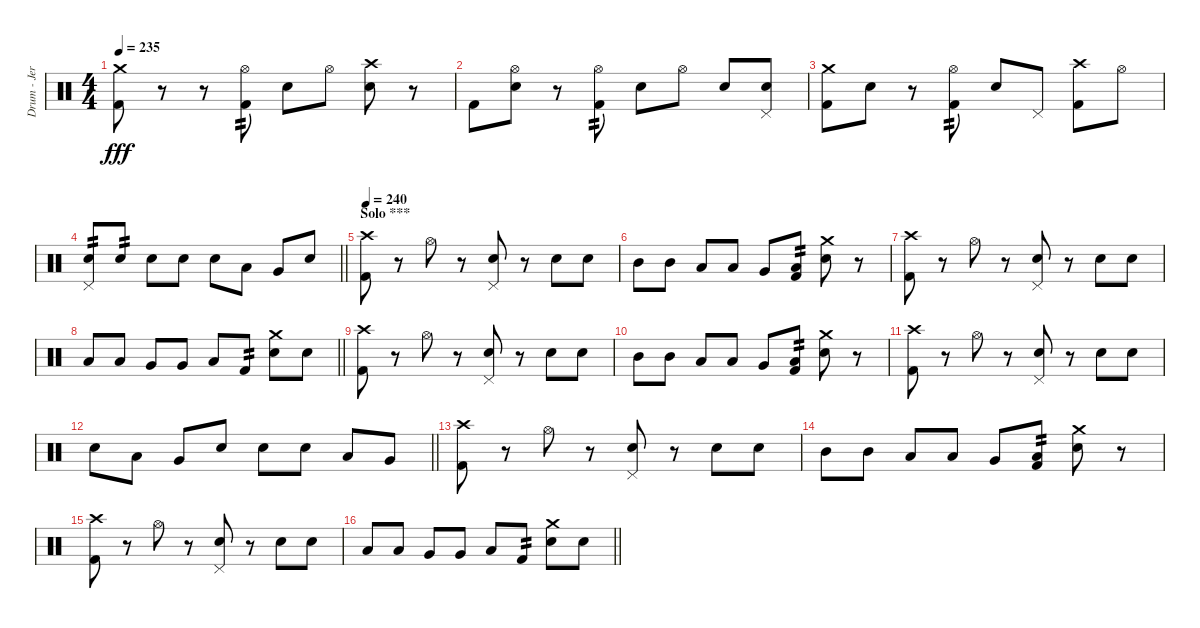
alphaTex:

\track ("Drum - Jerinx" "Drum - Jer") {instrument percussion}
\staff {score}
\articulation defaults
\ts (4 4)
\tempo 235
\clef neutral
\ks c
("Kick (hit) 2" "Crash medium (hit)").8{dy fff} r.8 r.8 ("Hi-Hat (open)" "Kick (hit) 2").8{tp 2} "Snare (hit) 2".8 "Hi-Hat (open)".8 ("Snare (hit) 2" "Crash high (hit)").8 r.8 |
"Kick (hit) 2".8 ("Hi-Hat (open)" "Snare (hit) 2").8 r.8 ("Hi-Hat (open)" "Kick (hit) 2").8{tp 2} "Snare (hit) 2".8 "Hi-Hat (open)".8 "Snare (hit) 2".8 ("Pedal Hi-Hat (hit)" "Snare (hit) 2").8 |
("Kick (hit) 2" "Crash medium (hit)").8 "Snare (hit) 2".8 r.8 ("Hi-Hat (open)" "Kick (hit) 2").8{tp 2} "Snare (hit) 2".8 "Pedal Hi-Hat (hit)".8 ("Kick (hit) 2" "Crash high (hit)").8 "Hi-Hat (open)".8 |
\barLineRight lightlight
("Pedal Hi-Hat (hit)" "Snare (hit) 2").8{tp 2} "Snare (hit) 2".8{tp 2} "Snare (hit) 2".8 "Snare (hit) 2".8 "Snare (hit) 2".8 "Low Tom (hit)".8 "Very Low Tom (hit)".8 "Snare (hit) 2".8 |
\section ("" "Solo ***")
\tempo 240
("Kick (hit) 2" "Crash high (hit)").8 r.8 "Hi-Hat (open)".8 r.8 ("Pedal Hi-Hat (hit)" "Snare (hit) 2").8 r.8 "Snare (hit) 2".8 "Snare (hit) 2".8 |
"Mid Tom (hit)".8 "Mid Tom (hit)".8 "Low Tom (hit)".8 "Low Tom (hit)".8 "Very Low Tom (hit)".8 ("Kick (hit) 2" "Low Floor Tom (hit)").8{tp 2} ("Snare (hit) 2" "Crash medium (hit)").8 r.8 |
("Kick (hit) 2" "Crash high (hit)").8 r.8 "Hi-Hat (open)".8 r.8 ("Pedal Hi-Hat (hit)" "Snare (hit) 2").8 r.8 "Snare (hit) 2".8 "Snare (hit) 2".8 |
\barLineRight lightlight "Low Tom (hit)".8 "Low Tom (hit)".8 "Very Low Tom (hit)".8 "Very Low Tom (hit)".8 "Low Floor Tom (hit)".8 "Kick (hit) 2".8{tp 2}
("Snare (hit) 2" "Crash medium (hit)").8 "Snare (hit) 2".8 |
("Kick (hit) 2" "Crash high (hit)").8 r.8 "Hi-Hat (open)".8 r.8 ("Pedal Hi-Hat (hit)" "Snare (hit) 2").8 r.8 "Snare (hit) 2".8 "Snare (hit) 2".8 |
"Mid Tom (hit)".8 "Mid Tom (hit)".8 "Low Tom (hit)".8 "Low Tom (hit)".8 "Very Low Tom (hit)".8 ("Kick (hit) 2" "Low Floor Tom (hit)").8{tp 2} ("Snare (hit) 2" "Crash medium (hit)").8 r.8 |
("Kick (hit) 2" "Crash high (hit)").8 r.8 "Hi-Hat (open)".8 r.8 ("Pedal Hi-Hat (hit)" "Snare (hit) 2").8 r.8 "Snare (hit) 2".8 "Snare (hit) 2".8 |
\barLineRight lightlight "Snare (hit) 2".8 "Low Tom (hit)".8 "Very Low Tom (hit)".8 "Snare (hit) 2".8 "Snare (hit) 2".8 "Snare (hit) 2".8 "Low Tom (hit)".8 "Very Low Tom (hit)".8
|
("Kick (hit) 2" "Crash high (hit)").8 r.8 "Hi-Hat (open)".8 r.8 ("Pedal Hi-Hat (hit)" "Snare (hit) 2").8 r.8 "Snare (hit) 2".8 "Snare (hit) 2".8 |
"Mid Tom (hit)".8 "Mid Tom (hit)".8 "Low Tom (hit)".8 "Low Tom (hit)".8 "Very Low Tom (hit)".8 ("Kick (hit) 2" "Low Floor Tom (hit)").8{tp 2} ("Snare (hit) 2" "Crash medium (hit)").8 r.8 |
("Kick (hit) 2" "Crash high (hit)").8 r.8 "Hi-Hat (open)".8 r.8 ("Pedal Hi-Hat (hit)" "Snare (hit) 2").8 r.8 "Snare (hit) 2".8 "Snare (hit) 2".8 |
\barLineRight lightlight "Low Tom (hit)".8 "Low Tom (hit)".8 "Very Low Tom (hit)".8 "Very Low Tom (hit)".8 "Low Floor Tom (hit)".8 "Kick (hit) 2".8{tp 2}
("Snare (hit) 2" "Crash medium (hit)").8 "Snare (hit) 2".8
